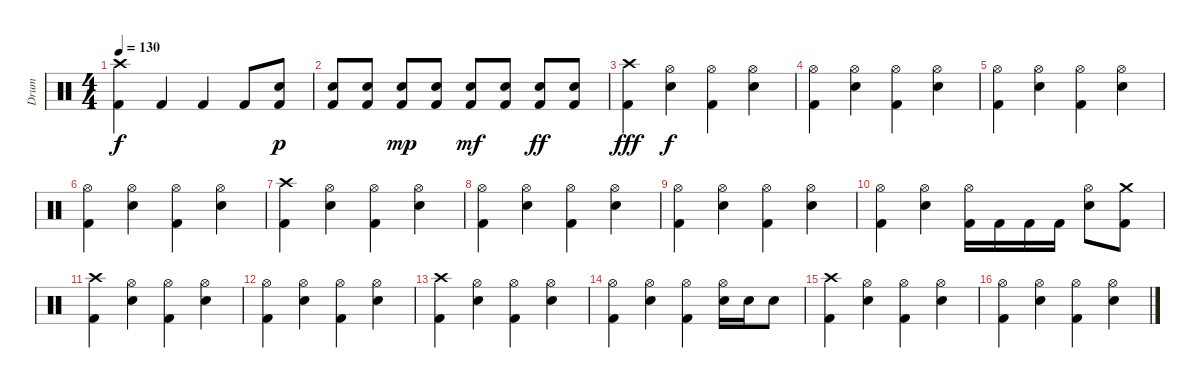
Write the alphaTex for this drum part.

\track ("Drum" "Drum") {instrument percussion}
\staff {score}
\articulation defaults
\ts (4 4)
\tempo 130
\clef neutral
\ks c
("Kick (hit) 2" "Crash high (hit)").4{dy f} "Kick (hit) 2".4 "Kick (hit) 2".4 "Kick (hit) 2".8 ("Kick (hit) 2" "Electric Snare (hit)").8{dy p} |
("Kick (hit) 2" "Electric Snare (hit)").8 ("Kick (hit) 2" "Electric Snare (hit)").8 ("Kick (hit) 2" "Electric Snare (hit)").8{dy mp} ("Kick (hit) 2" "Electric Snare (hit)").8 ("Kick (hit) 2" "Electric Snare (hit)").8{dy mf} ("Kick (hit) 2" "Electric Snare (hit)").8 ("Kick (hit) 2" "Electric Snare (hit)").8{dy ff} ("Kick (hit) 2" "Electric Snare (hit)").8 |
("Kick (hit) 2" "Crash high (hit)").4{dy fff} ("Electric Snare (hit)" "Hi-Hat (open)").4{dy f} ("Kick (hit) 2" "Hi-Hat (open)").4 ("Electric Snare (hit)" "Hi-Hat (open)").4 |
("Kick (hit) 2" "Hi-Hat (open)").4 ("Electric Snare (hit)" "Hi-Hat (open)").4 ("Kick (hit) 2" "Hi-Hat (open)").4 ("Electric Snare (hit)" "Hi-Hat (open)").4 |
("Kick (hit) 2" "Hi-Hat (open)").4 ("Electric Snare (hit)" "Hi-Hat (open)").4 ("Kick (hit) 2" "Hi-Hat (open)").4 ("Electric Snare (hit)" "Hi-Hat (open)").4 |
("Kick (hit) 2" "Hi-Hat (open)").4 ("Electric Snare (hit)" "Hi-Hat (open)").4 ("Kick (hit) 2" "Hi-Hat (open)").4 ("Electric Snare (hit)" "Hi-Hat (open)").4 |
("Kick (hit) 2" "Crash high (hit)").4 ("Electric Snare (hit)" "Hi-Hat (open)").4 ("Kick (hit) 2" "Hi-Hat (open)").4 ("Electric Snare (hit)" "Hi-Hat (open)").4 |
("Kick (hit) 2" "Hi-Hat (open)").4 ("Electric Snare (hit)" "Hi-Hat (open)").4 ("Kick (hit) 2" "Hi-Hat (open)").4 ("Electric Snare (hit)" "Hi-Hat (open)").4 |
("Kick (hit) 2" "Hi-Hat (open)").4 ("Electric Snare (hit)" "Hi-Hat (open)").4 ("Kick (hit) 2" "Hi-Hat (open)").4 ("Electric Snare (hit)" "Hi-Hat (open)").4 |
("Kick (hit) 2" "Hi-Hat (open)").4 ("Electric Snare (hit)" "Hi-Hat (open)").4 ("Kick (hit) 2" "Hi-Hat (open)").16 "Kick (hit) 2".16 "Kick (hit) 2".16 "Kick (hit) 2".16 ("Electric Snare (hit)" "Hi-Hat (open)").8 ("Kick (hit) 2" "Crash medium (hit)").8 |
("Kick (hit) 2" "Crash high (hit)").4 ("Electric Snare (hit)" "Hi-Hat (open)").4 ("Kick (hit) 2" "Hi-Hat (open)").4 ("Electric Snare (hit)" "Hi-Hat (open)").4 |
("Kick (hit) 2" "Hi-Hat (open)").4 ("Electric Snare (hit)" "Hi-Hat (open)").4 ("Kick (hit) 2" "Hi-Hat (open)").4 ("Electric Snare (hit)" "Hi-Hat (open)").4 |
("Kick (hit) 2" "Crash high (hit)").4 ("Electric Snare (hit)" "Hi-Hat (open)").4 ("Kick (hit) 2" "Hi-Hat (open)").4 ("Electric Snare (hit)" "Hi-Hat (open)").4 |
("Kick (hit) 2" "Hi-Hat (open)").4 ("Electric Snare (hit)" "Hi-Hat (open)").4 ("Kick (hit) 2" "Hi-Hat (open)").4 ("Electric Snare (hit)" "Hi-Hat (open)").16 "Electric Snare (hit)".16 "Electric Snare (hit)".8 |
("Kick (hit) 2" "Crash high (hit)").4 ("Electric Snare (hit)" "Hi-Hat (open)").4 ("Kick (hit) 2" "Hi-Hat (open)").4 ("Electric Snare (hit)" "Hi-Hat (open)").4 |
("Kick (hit) 2" "Hi-Hat (open)").4 ("Electric Snare (hit)" "Hi-Hat (open)").4 ("Kick (hit) 2" "Hi-Hat (open)").4 ("Electric Snare (hit)" "Hi-Hat (open)").4
